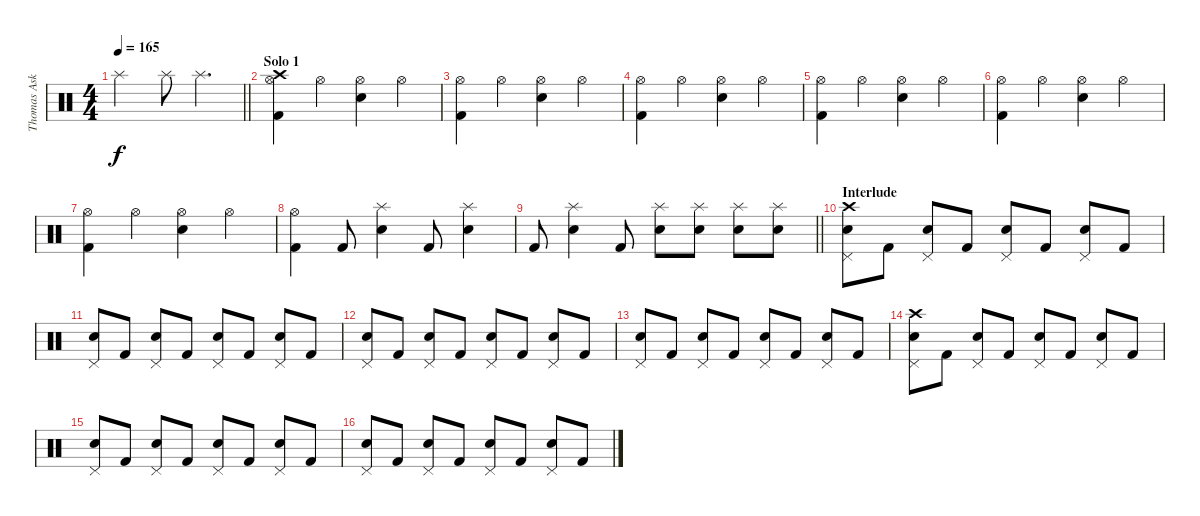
\track ("Thomas Asklund" "Thomas Ask") {instrument percussion}
\staff {score}
\articulation defaults
\ts (4 4)
\tempo 165
\clef neutral
\barLineRight lightlight
\ks c "Splash (hit)".2{dy f} "Splash (hit)".8 "Splash (hit)".4{d}
|
\section ("" "Solo 1")
("Crash high (hit)" "Hi-Hat (open)" "Kick (hit) 2").4 "Hi-Hat (open)".4 ("Hi-Hat (open)" "Snare (hit) 2").4 "Hi-Hat (open)".4 |
("Hi-Hat (open)" "Kick (hit) 2").4 "Hi-Hat (open)".4 ("Hi-Hat (open)" "Snare (hit) 2").4 "Hi-Hat (open)".4 |
("Hi-Hat (open)" "Kick (hit) 2").4 "Hi-Hat (open)".4 ("Hi-Hat (open)" "Snare (hit) 2").4 "Hi-Hat (open)".4 |
("Hi-Hat (open)" "Kick (hit) 2").4 "Hi-Hat (open)".4 ("Hi-Hat (open)" "Snare (hit) 2").4 "Hi-Hat (open)".4 |
("Hi-Hat (open)" "Kick (hit) 2").4 "Hi-Hat (open)".4 ("Hi-Hat (open)" "Snare (hit) 2").4 "Hi-Hat (open)".4 |
("Hi-Hat (open)" "Kick (hit) 2").4 "Hi-Hat (open)".4 ("Hi-Hat (open)" "Snare (hit) 2").4 "Hi-Hat (open)".4 |
("Hi-Hat (open)" "Kick (hit) 2").4 "Kick (hit) 2".8 ("Splash (hit)" "Snare (hit) 2").4 "Kick (hit) 2".8 ("Splash (hit)" "Snare (hit) 2").4 |
\barLineRight lightlight "Kick (hit) 2".8
("Splash (hit)" "Snare (hit) 2").4 "Kick (hit) 2".8 ("Splash (hit)" "Snare (hit) 2").8 ("Splash (hit)" "Snare (hit) 2").8 ("Splash (hit)" "Snare (hit) 2").8 ("Splash (hit)" "Snare (hit) 2").8 |
\section ("" "Interlude")
("Crash high (hit)" "Snare (hit) 2" "Pedal Hi-Hat (hit)").8 "Kick (hit) 2".8 ("Snare (hit) 2" "Pedal Hi-Hat (hit)").8 "Kick (hit) 2".8 ("Snare (hit) 2" "Pedal Hi-Hat (hit)").8 "Kick (hit) 2".8 ("Snare (hit) 2" "Pedal Hi-Hat (hit)").8 "Kick (hit) 2".8 |
("Snare (hit) 2" "Pedal Hi-Hat (hit)").8 "Kick (hit) 2".8 ("Snare (hit) 2" "Pedal Hi-Hat (hit)").8 "Kick (hit) 2".8 ("Snare (hit) 2" "Pedal Hi-Hat (hit)").8 "Kick (hit) 2".8 ("Snare (hit) 2" "Pedal Hi-Hat (hit)").8 "Kick (hit) 2".8 |
("Snare (hit) 2" "Pedal Hi-Hat (hit)").8 "Kick (hit) 2".8 ("Snare (hit) 2" "Pedal Hi-Hat (hit)").8 "Kick (hit) 2".8 ("Snare (hit) 2" "Pedal Hi-Hat (hit)").8 "Kick (hit) 2".8 ("Snare (hit) 2" "Pedal Hi-Hat (hit)").8 "Kick (hit) 2".8 |
("Snare (hit) 2" "Pedal Hi-Hat (hit)").8 "Kick (hit) 2".8 ("Snare (hit) 2" "Pedal Hi-Hat (hit)").8 "Kick (hit) 2".8 ("Snare (hit) 2" "Pedal Hi-Hat (hit)").8 "Kick (hit) 2".8 ("Snare (hit) 2" "Pedal Hi-Hat (hit)").8 "Kick (hit) 2".8 |
("Crash high (hit)" "Snare (hit) 2" "Pedal Hi-Hat (hit)").8 "Kick (hit) 2".8 ("Snare (hit) 2" "Pedal Hi-Hat (hit)").8 "Kick (hit) 2".8 ("Snare (hit) 2" "Pedal Hi-Hat (hit)").8 "Kick (hit) 2".8 ("Snare (hit) 2" "Pedal Hi-Hat (hit)").8 "Kick (hit) 2".8 |
("Snare (hit) 2" "Pedal Hi-Hat (hit)").8 "Kick (hit) 2".8 ("Snare (hit) 2" "Pedal Hi-Hat (hit)").8 "Kick (hit) 2".8 ("Snare (hit) 2" "Pedal Hi-Hat (hit)").8 "Kick (hit) 2".8 ("Snare (hit) 2" "Pedal Hi-Hat (hit)").8 "Kick (hit) 2".8 |
("Snare (hit) 2" "Pedal Hi-Hat (hit)").8 "Kick (hit) 2".8 ("Snare (hit) 2" "Pedal Hi-Hat (hit)").8 "Kick (hit) 2".8 ("Snare (hit) 2" "Pedal Hi-Hat (hit)").8 "Kick (hit) 2".8 ("Snare (hit) 2" "Pedal Hi-Hat (hit)").8 "Kick (hit) 2".8
